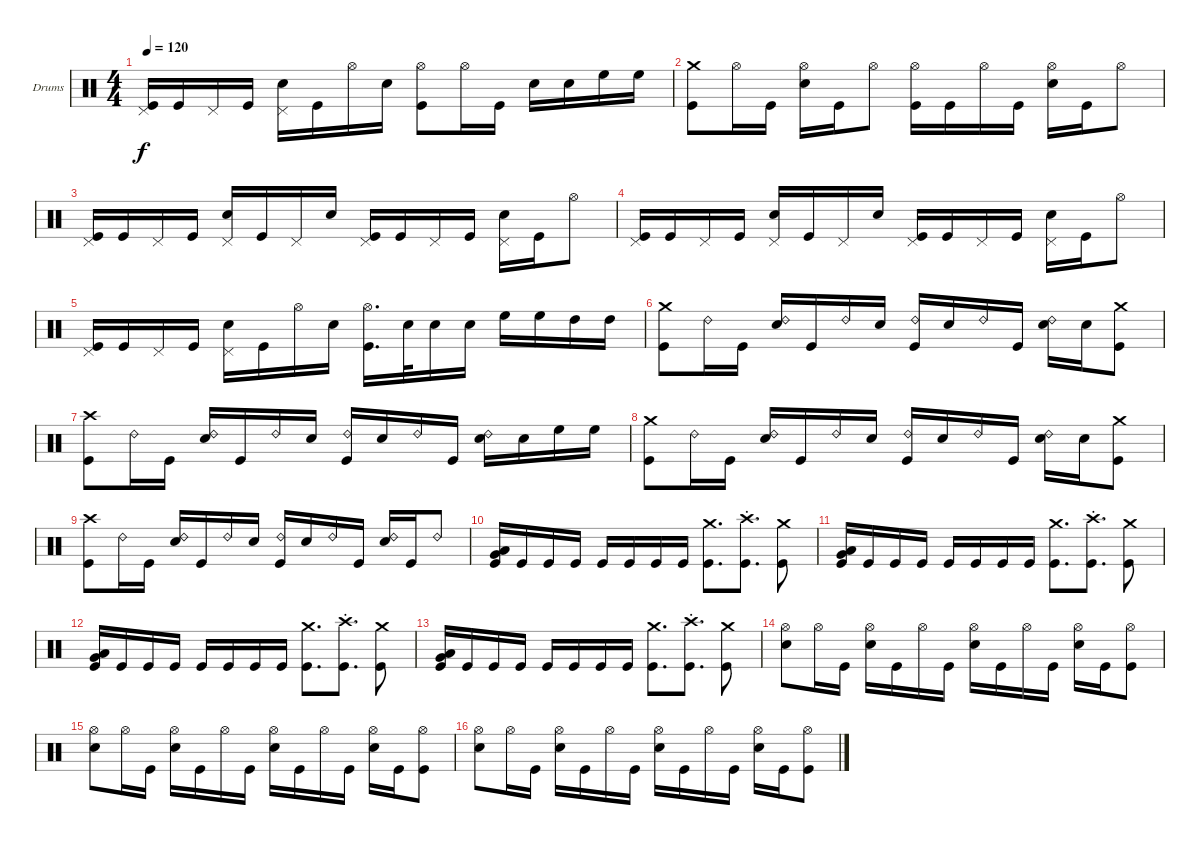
\bracketExtendMode groupsimilarinstruments
\firstSystemTrackNameOrientation horizontal
\otherSystemsTrackNameOrientation horizontal
\track ("Drumkit" "Drums") {instrument percussion}
\staff {score}
\articulation defaults
\ts (4 4)
\tempo 120
\clef neutral
\ks c
("Pedal Hi-Hat (hit)" "Kick (hit)").16{dy f} "Kick (hit)".16 "Pedal Hi-Hat (hit)".16 "Kick (hit)".16 ("Pedal Hi-Hat (hit)" "Snare (hit) 2").16 "Kick (hit)".16 "Hi-Hat (open)".16 "Snare (hit) 2".16 ("Hi-Hat (open)" "Kick (hit)").8 "Hi-Hat (open)".16 "Kick (hit)".16 "Snare (hit) 2".16 "Snare (hit) 2".16 "High Floor Tom (hit)".16 "High Floor Tom (hit)".16 |
("Crash medium (hit)" "Kick (hit)").8 "Hi-Hat (open)".16 "Kick (hit)".16 ("Hi-Hat (open)" "Snare (hit) 2").16 "Kick (hit)".16 "Hi-Hat (open)".8 ("Hi-Hat (open)" "Kick (hit)").16 "Kick (hit)".16 "Hi-Hat (open)".16 "Kick (hit)".16 ("Hi-Hat (open)" "Snare (hit) 2").16 "Kick (hit)".16 "Hi-Hat (open)".8 |
("Pedal Hi-Hat (hit)" "Kick (hit)").16 "Kick (hit)".16 "Pedal Hi-Hat (hit)".16 "Kick (hit)".16 ("Pedal Hi-Hat (hit)" "Snare (hit) 2").16 "Kick (hit)".16 "Pedal Hi-Hat (hit)".16 "Snare (hit) 2".16 ("Pedal Hi-Hat (hit)" "Kick (hit)").16 "Kick (hit)".16 "Pedal Hi-Hat (hit)".16 "Kick (hit)".16 ("Pedal Hi-Hat (hit)" "Snare (hit) 2").16 "Kick (hit)".16 "Hi-Hat (open)".8 |
("Pedal Hi-Hat (hit)" "Kick (hit)").16 "Kick (hit)".16 "Pedal Hi-Hat (hit)".16 "Kick (hit)".16 ("Pedal Hi-Hat (hit)" "Snare (hit) 2").16 "Kick (hit)".16 "Pedal Hi-Hat (hit)".16 "Snare (hit) 2".16 ("Pedal Hi-Hat (hit)" "Kick (hit)").16 "Kick (hit)".16 "Pedal Hi-Hat (hit)".16 "Kick (hit)".16 ("Pedal Hi-Hat (hit)" "Snare (hit) 2").16 "Kick (hit)".16 "Hi-Hat (open)".8 |
("Pedal Hi-Hat (hit)" "Kick (hit)").16 "Kick (hit)".16 "Pedal Hi-Hat (hit)".16 "Kick (hit)".16 ("Pedal Hi-Hat (hit)" "Snare (hit) 2").16 "Kick (hit)".16 "Hi-Hat (open)".16 "Snare (hit) 2".16 ("Hi-Hat (open)" "Kick (hit)").16{d} "Snare (hit) 2".32 "Snare (hit) 2".16 "Snare (hit) 2".16 "High Floor Tom (hit)".16 "High Floor Tom (hit)".16 "High Tom (hit)".16 "High Tom (hit)".16 |
("Crash medium (hit)" "Kick (hit)").8 "Ride (bell) 2".16 "Kick (hit)".16 ("Ride (bell) 2" "Snare (hit) 2").16 "Kick (hit)".16 "Ride (bell) 2".16 "Snare (hit) 2".16 ("Ride (bell) 2" "Kick (hit)").16 "Snare (hit) 2".16 "Ride (bell) 2".16 "Kick (hit)".16 ("Ride (bell) 2" "Snare (hit) 2").16 "Snare (hit) 2".16 ("Crash medium (hit)" "Kick (hit)").8 |
("Crash high (hit)" "Kick (hit)").8 "Ride (bell) 2".16 "Kick (hit)".16 ("Ride (bell) 2" "Snare (hit) 2").16 "Kick (hit)".16 "Ride (bell) 2".16 "Snare (hit) 2".16 ("Ride (bell) 2" "Kick (hit)").16 "Snare (hit) 2".16 "Ride (bell) 2".16 "Kick (hit)".16 ("Ride (bell) 2" "Snare (hit) 2").16 "Snare (hit) 2".16 "High Floor Tom (hit)".16 "High Floor Tom (hit)".16 |
("Crash medium (hit)" "Kick (hit)").8 "Ride (bell) 2".16 "Kick (hit)".16 ("Ride (bell) 2" "Snare (hit) 2").16 "Kick (hit)".16 "Ride (bell) 2".16 "Snare (hit) 2".16 ("Ride (bell) 2" "Kick (hit)").16 "Snare (hit) 2".16 "Ride (bell) 2".16 "Kick (hit)".16 ("Ride (bell) 2" "Snare (hit) 2").16 "Snare (hit) 2".16 ("Crash medium (hit)" "Kick (hit)").8 |
("Crash high (hit)" "Kick (hit)").8 "Ride (bell) 2".16 "Kick (hit)".16 ("Ride (bell) 2" "Snare (hit) 2").16 "Kick (hit)".16 "Ride (bell) 2".16 "Snare (hit) 2".16 ("Ride (bell) 2" "Kick (hit)").16 "Snare (hit) 2".16 "Ride (bell) 2".16 "Kick (hit)".16 ("Ride (bell) 2" "Snare (hit) 2").16 "Kick (hit)".16 "Ride (bell) 2".8 |
("Low Tom (hit)" "Very Low Tom (hit)" "Kick (hit)").16 "Kick (hit)".16 "Kick (hit)".16 "Kick (hit)".16 "Kick (hit)".16 "Kick (hit)".16 "Kick (hit)".16 "Kick (hit)".16 ("Crash medium (hit)" "Kick (hit)").8{d} ("Crash high (hit)" "Kick (hit)"{st}).8{d} ("Crash medium (hit)" "Kick (hit)").8 |
("Low Tom (hit)" "Very Low Tom (hit)" "Kick (hit)").16 "Kick (hit)".16 "Kick (hit)".16 "Kick (hit)".16 "Kick (hit)".16 "Kick (hit)".16 "Kick (hit)".16 "Kick (hit)".16 ("Crash medium (hit)" "Kick (hit)").8{d} ("Crash high (hit)" "Kick (hit)"{st}).8{d} ("Crash medium (hit)" "Kick (hit)").8 |
("Low Tom (hit)" "Very Low Tom (hit)" "Kick (hit)").16 "Kick (hit)".16 "Kick (hit)".16 "Kick (hit)".16 "Kick (hit)".16 "Kick (hit)".16 "Kick (hit)".16 "Kick (hit)".16 ("Crash medium (hit)" "Kick (hit)").8{d} ("Crash high (hit)" "Kick (hit)"{st}).8{d} ("Crash medium (hit)" "Kick (hit)").8 |
("Low Tom (hit)" "Very Low Tom (hit)" "Kick (hit)").16 "Kick (hit)".16 "Kick (hit)".16 "Kick (hit)".16 "Kick (hit)".16 "Kick (hit)".16 "Kick (hit)".16 "Kick (hit)".16 ("Crash medium (hit)" "Kick (hit)").8{d} ("Crash high (hit)" "Kick (hit)"{st}).8{d} ("Crash medium (hit)" "Kick (hit)").8 |
("Hi-Hat (open)" "Snare (hit) 2").8 "Hi-Hat (open)".16 "Kick (hit)".16 ("Hi-Hat (open)" "Snare (hit) 2").16 "Kick (hit)".16 "Hi-Hat (open)".16 "Kick (hit)".16 ("Hi-Hat (open)" "Snare (hit) 2").16 "Kick (hit)".16 "Hi-Hat (open)".16 "Kick (hit)".16 ("Hi-Hat (open)" "Snare (hit) 2").16 "Kick (hit)".16 ("Hi-Hat (open)" "Kick (hit)").8 |
("Hi-Hat (open)" "Snare (hit) 2").8 "Hi-Hat (open)".16 "Kick (hit)".16 ("Hi-Hat (open)" "Snare (hit) 2").16 "Kick (hit)".16 "Hi-Hat (open)".16 "Kick (hit)".16 ("Hi-Hat (open)" "Snare (hit) 2").16 "Kick (hit)".16 "Hi-Hat (open)".16 "Kick (hit)".16 ("Hi-Hat (open)" "Snare (hit) 2").16 "Kick (hit)".16 ("Hi-Hat (open)" "Kick (hit)").8 |
("Hi-Hat (open)" "Snare (hit) 2").8 "Hi-Hat (open)".16 "Kick (hit)".16 ("Hi-Hat (open)" "Snare (hit) 2").16 "Kick (hit)".16 "Hi-Hat (open)".16 "Kick (hit)".16 ("Hi-Hat (open)" "Snare (hit) 2").16 "Kick (hit)".16 "Hi-Hat (open)".16 "Kick (hit)".16 ("Hi-Hat (open)" "Snare (hit) 2").16 "Kick (hit)".16 ("Hi-Hat (open)" "Kick (hit)").8
